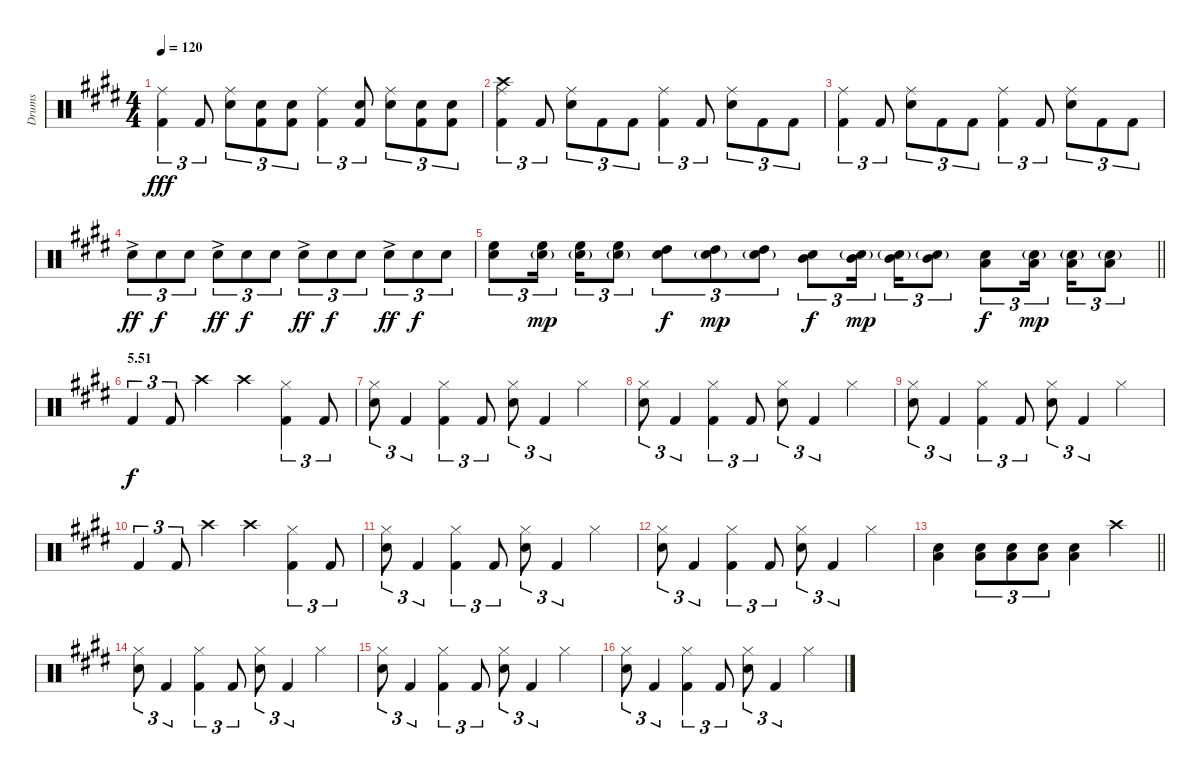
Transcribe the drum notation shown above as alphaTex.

\track ("Drums" "Drums") {instrument percussion}
\staff {score}
\articulation defaults
\ts (4 4)
\tempo 120
\clef neutral
\ks c#minor
("Ride (middle)" "Kick (hit) 2").4{tu (3 2) dy fff} "Kick (hit) 2".8{tu (3 2)} ("Ride (middle)" "Electric Snare (hit)").8{tu (3 2)} ("Electric Snare (hit)" "Kick (hit) 2").8{tu (3 2)} ("Electric Snare (hit)" "Kick (hit) 2").8{tu (3 2)} ("Ride (middle)" "Kick (hit) 2").4{tu (3 2)} ("Electric Snare (hit)" "Kick (hit) 2").8{tu (3 2)} ("Ride (middle)" "Electric Snare (hit)").8{tu (3 2)} ("Electric Snare (hit)" "Kick (hit) 2").8{tu (3 2)} ("Electric Snare (hit)" "Kick (hit) 2").8{tu (3 2)} |
("Crash high (hit)" "Ride (middle)" "Kick (hit) 2").4{tu (3 2)} "Kick (hit) 2".8{tu (3 2)} ("Ride (middle)" "Electric Snare (hit)").8{tu (3 2)} "Kick (hit) 2".8{tu (3 2)} "Kick (hit) 2".8{tu (3 2)} ("Ride (middle)" "Kick (hit) 2").4{tu (3 2)} "Kick (hit) 2".8{tu (3 2)} ("Ride (middle)" "Electric Snare (hit)").8{tu (3 2)} "Kick (hit) 2".8{tu (3 2)} "Kick (hit) 2".8{tu (3 2)} |
("Ride (middle)" "Kick (hit) 2").4{tu (3 2)} "Kick (hit) 2".8{tu (3 2)} ("Ride (middle)" "Electric Snare (hit)").8{tu (3 2)} "Kick (hit) 2".8{tu (3 2)} "Kick (hit) 2".8{tu (3 2)} ("Ride (middle)" "Kick (hit) 2").4{tu (3 2)} "Kick (hit) 2".8{tu (3 2)} ("Ride (middle)" "Electric Snare (hit)").8{tu (3 2)} "Kick (hit) 2".8{tu (3 2)} "Kick (hit) 2".8{tu (3 2)} |
"Electric Snare (hit)"{ac}.8{tu (3 2) dy ff} "Electric Snare (hit)".8{tu (3 2) dy f} "Electric Snare (hit)".8{tu (3 2)} "Electric Snare (hit)"{ac}.8{tu (3 2) dy ff} "Electric Snare (hit)".8{tu (3 2) dy f} "Electric Snare (hit)".8{tu (3 2)} "Electric Snare (hit)"{ac}.8{tu (3 2) dy ff} "Electric Snare (hit)".8{tu (3 2) dy f} "Electric Snare (hit)".8{tu (3 2)} "Electric Snare (hit)"{ac}.8{tu (3 2) dy ff} "Electric Snare (hit)".8{tu (3 2) dy f} "Electric Snare (hit)".8{tu (3 2)} |
\barLineRight lightlight
("High Floor Tom (hit)" "Electric Snare (hit)").8{tu (3 2)} ("High Floor Tom (hit)" "Electric Snare (hit)"{g}).16{tu (3 2) dy mp beam splitsecondary} ("High Floor Tom (hit)" "Electric Snare (hit)"{g}).16{tu (3 2)} ("High Floor Tom (hit)" "Electric Snare (hit)"{g}).8{tu (3 2)} ("High Tom (hit)" "Electric Snare (hit)").8{tu (3 2) dy f} ("High Tom (hit)" "Electric Snare (hit)"{g}).8{tu (3 2) dy mp} ("High Tom (hit)" "Electric Snare (hit)"{g}).8{tu (3 2)} ("Mid Tom (hit)" "Electric Snare (hit)").8{tu (3 2) dy f} ("Mid Tom (hit)" "Electric Snare (hit)"{g}).16{tu (3 2) dy mp beam splitsecondary} ("Mid Tom (hit)" "Electric Snare (hit)"{g}).16{tu (3 2)} ("Mid Tom (hit)" "Electric Snare (hit)"{g}).8{tu (3 2)} ("Low Tom (hit)" "Electric Snare (hit)").8{tu (3 2) dy f} ("Low Tom (hit)" "Electric Snare (hit)"{g}).16{tu (3 2) dy mp beam splitsecondary} ("Low Tom (hit)" "Electric Snare (hit)"{g}).16{tu (3 2)} ("Low Tom (hit)" "Electric Snare (hit)"{g}).8{tu (3 2)} |
\section ("" "5.51")
"Kick (hit) 2".4{tu (3 2) dy f} "Kick (hit) 2".8{tu (3 2)} "Crash high (hit)".4 "Crash high (hit)".4 ("Hi-Hat (closed)" "Kick (hit) 2").4{tu (3 2)} "Kick (hit) 2".8{tu (3 2)} |
("Hi-Hat (closed)" "Electric Snare (hit)").8{tu (3 2)} "Kick (hit) 2".4{tu (3 2)} ("Hi-Hat (closed)" "Kick (hit) 2").4{tu (3 2)} "Kick (hit) 2".8{tu (3 2)} ("Hi-Hat (closed)" "Electric Snare (hit)").8{tu (3 2)} "Kick (hit) 2".4{tu (3 2)} "Hi-Hat (closed)".4 |
("Hi-Hat (closed)" "Electric Snare (hit)").8{tu (3 2)} "Kick (hit) 2".4{tu (3 2)} ("Hi-Hat (closed)" "Kick (hit) 2").4{tu (3 2)} "Kick (hit) 2".8{tu (3 2)} ("Hi-Hat (closed)" "Electric Snare (hit)").8{tu (3 2)} "Kick (hit) 2".4{tu (3 2)} "Hi-Hat (closed)".4 |
("Hi-Hat (closed)" "Electric Snare (hit)").8{tu (3 2)} "Kick (hit) 2".4{tu (3 2)} ("Hi-Hat (closed)" "Kick (hit) 2").4{tu (3 2)} "Kick (hit) 2".8{tu (3 2)} ("Hi-Hat (closed)" "Electric Snare (hit)").8{tu (3 2)} "Kick (hit) 2".4{tu (3 2)} "Hi-Hat (closed)".4 |
"Kick (hit) 2".4{tu (3 2)} "Kick (hit) 2".8{tu (3 2)} "Crash high (hit)".4 "Crash high (hit)".4 ("Hi-Hat (closed)" "Kick (hit) 2").4{tu (3 2)} "Kick (hit) 2".8{tu (3 2)} |
("Hi-Hat (closed)" "Electric Snare (hit)").8{tu (3 2)} "Kick (hit) 2".4{tu (3 2)} ("Hi-Hat (closed)" "Kick (hit) 2").4{tu (3 2)} "Kick (hit) 2".8{tu (3 2)} ("Hi-Hat (closed)" "Electric Snare (hit)").8{tu (3 2)} "Kick (hit) 2".4{tu (3 2)} "Hi-Hat (closed)".4 |
("Hi-Hat (closed)" "Electric Snare (hit)").8{tu (3 2)} "Kick (hit) 2".4{tu (3 2)} ("Hi-Hat (closed)" "Kick (hit) 2").4{tu (3 2)} "Kick (hit) 2".8{tu (3 2)} ("Hi-Hat (closed)" "Electric Snare (hit)").8{tu (3 2)} "Kick (hit) 2".4{tu (3 2)} "Hi-Hat (closed)".4 |
\barLineRight lightlight
("Electric Snare (hit)" "Low Tom (hit)").4 ("Electric Snare (hit)" "Low Tom (hit)").8{tu (3 2)} ("Electric Snare (hit)" "Low Tom (hit)").8{tu (3 2)} ("Electric Snare (hit)" "Low Tom (hit)").8{tu (3 2)} ("Electric Snare (hit)" "Low Tom (hit)").4 "Crash high (hit)".4 |
("Hi-Hat (closed)" "Electric Snare (hit)").8{tu (3 2)} "Kick (hit) 2".4{tu (3 2)} ("Hi-Hat (closed)" "Kick (hit) 2").4{tu (3 2)} "Kick (hit) 2".8{tu (3 2)} ("Hi-Hat (closed)" "Electric Snare (hit)").8{tu (3 2)} "Kick (hit) 2".4{tu (3 2)} "Hi-Hat (closed)".4 |
("Hi-Hat (closed)" "Electric Snare (hit)").8{tu (3 2)} "Kick (hit) 2".4{tu (3 2)} ("Hi-Hat (closed)" "Kick (hit) 2").4{tu (3 2)} "Kick (hit) 2".8{tu (3 2)} ("Hi-Hat (closed)" "Electric Snare (hit)").8{tu (3 2)} "Kick (hit) 2".4{tu (3 2)} "Hi-Hat (closed)".4 |
("Hi-Hat (closed)" "Electric Snare (hit)").8{tu (3 2)} "Kick (hit) 2".4{tu (3 2)} ("Hi-Hat (closed)" "Kick (hit) 2").4{tu (3 2)} "Kick (hit) 2".8{tu (3 2)} ("Hi-Hat (closed)" "Electric Snare (hit)").8{tu (3 2)} "Kick (hit) 2".4{tu (3 2)} "Hi-Hat (closed)".4
